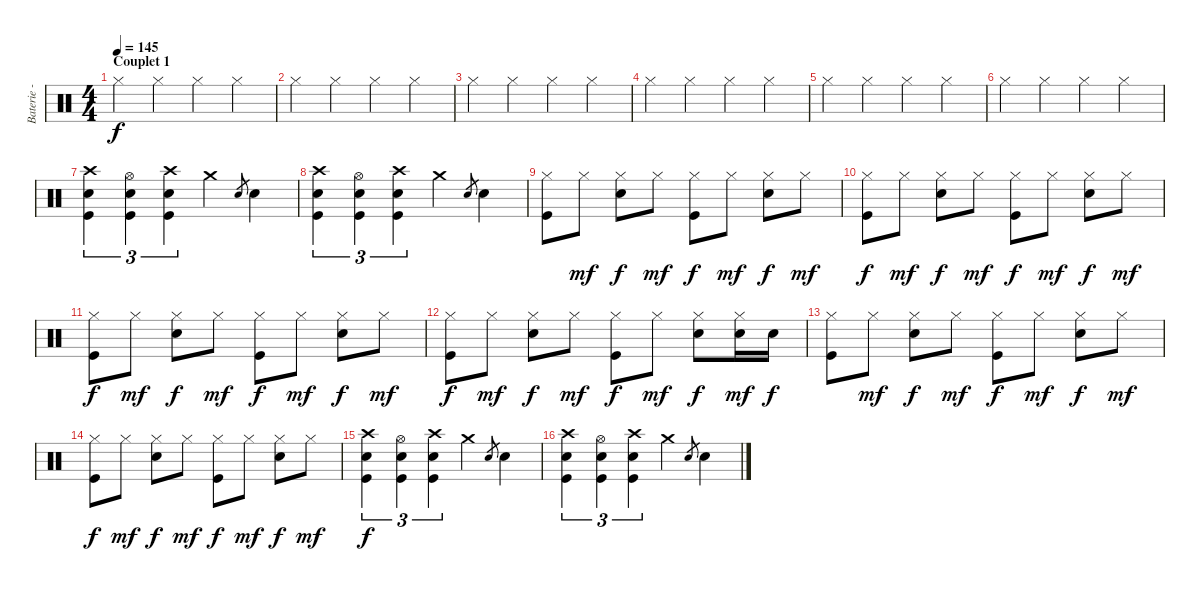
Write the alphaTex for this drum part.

\track ("Baterie - Alex" "Baterie - ") {instrument percussion}
\staff {score}
\articulation defaults
\ts (4 4)
\section ("" "Couplet 1")
\tempo 145
\clef neutral
\ks c "Hi-Hat (closed)".4{dy f} "Hi-Hat (closed)".4 "Hi-Hat (closed)".4 "Hi-Hat (closed)".4
|
"Hi-Hat (closed)".4 "Hi-Hat (closed)".4 "Hi-Hat (closed)".4 "Hi-Hat (closed)".4 |
"Hi-Hat (closed)".4 "Hi-Hat (closed)".4 "Hi-Hat (closed)".4 "Hi-Hat (closed)".4 |
"Hi-Hat (closed)".4 "Hi-Hat (closed)".4 "Hi-Hat (closed)".4 "Hi-Hat (closed)".4 |
"Hi-Hat (closed)".4 "Hi-Hat (closed)".4 "Hi-Hat (closed)".4 "Hi-Hat (closed)".4 |
"Hi-Hat (closed)".4 "Hi-Hat (closed)".4 "Hi-Hat (closed)".4 "Hi-Hat (closed)".4 |
("Crash high (hit)" "Electric Snare (hit)" "Kick (hit)").4{tu (3 2)} ("Hi-Hat (open)" "Electric Snare (hit)" "Kick (hit)").4{tu (3 2)} ("Crash high (hit)" "Electric Snare (hit)" "Kick (hit)").4{tu (3 2)} "Crash medium (hit)".4 "Electric Snare (hit)".8{gr} "Electric Snare (hit)".4 |
("Crash high (hit)" "Electric Snare (hit)" "Kick (hit)").4{tu (3 2)} ("Hi-Hat (open)" "Electric Snare (hit)" "Kick (hit)").4{tu (3 2)} ("Crash high (hit)" "Electric Snare (hit)" "Kick (hit)").4{tu (3 2)} "Crash medium (hit)".4 "Electric Snare (hit)".8{gr} "Electric Snare (hit)".4 |
("Hi-Hat (closed)" "Kick (hit)").8 "Hi-Hat (closed)".8{dy mf} ("Hi-Hat (closed)" "Electric Snare (hit)").8{dy f} "Hi-Hat (closed)".8{dy mf} ("Hi-Hat (closed)" "Kick (hit)").8{dy f} "Hi-Hat (closed)".8{dy mf} ("Hi-Hat (closed)" "Electric Snare (hit)").8{dy f} "Hi-Hat (closed)".8{dy mf} |
("Hi-Hat (closed)" "Kick (hit)").8{dy f} "Hi-Hat (closed)".8{dy mf} ("Hi-Hat (closed)" "Electric Snare (hit)").8{dy f} "Hi-Hat (closed)".8{dy mf} ("Hi-Hat (closed)" "Kick (hit)").8{dy f} "Hi-Hat (closed)".8{dy mf} ("Hi-Hat (closed)" "Electric Snare (hit)").8{dy f} "Hi-Hat (closed)".8{dy mf} |
("Hi-Hat (closed)" "Kick (hit)").8{dy f} "Hi-Hat (closed)".8{dy mf} ("Hi-Hat (closed)" "Electric Snare (hit)").8{dy f} "Hi-Hat (closed)".8{dy mf} ("Hi-Hat (closed)" "Kick (hit)").8{dy f} "Hi-Hat (closed)".8{dy mf} ("Hi-Hat (closed)" "Electric Snare (hit)").8{dy f} "Hi-Hat (closed)".8{dy mf} |
("Hi-Hat (closed)" "Kick (hit)").8{dy f} "Hi-Hat (closed)".8{dy mf} ("Hi-Hat (closed)" "Electric Snare (hit)").8{dy f} "Hi-Hat (closed)".8{dy mf} ("Hi-Hat (closed)" "Kick (hit)").8{dy f} "Hi-Hat (closed)".8{dy mf} ("Hi-Hat (closed)" "Electric Snare (hit)").8{dy f} ("Hi-Hat (closed)" "Electric Snare (hit)").16{dy mf} "Electric Snare (hit)".16{dy f} |
("Hi-Hat (closed)" "Kick (hit)").8 "Hi-Hat (closed)".8{dy mf} ("Hi-Hat (closed)" "Electric Snare (hit)").8{dy f} "Hi-Hat (closed)".8{dy mf} ("Hi-Hat (closed)" "Kick (hit)").8{dy f} "Hi-Hat (closed)".8{dy mf} ("Hi-Hat (closed)" "Electric Snare (hit)").8{dy f} "Hi-Hat (closed)".8{dy mf} |
("Hi-Hat (closed)" "Kick (hit)").8{dy f} "Hi-Hat (closed)".8{dy mf} ("Hi-Hat (closed)" "Electric Snare (hit)").8{dy f} "Hi-Hat (closed)".8{dy mf} ("Hi-Hat (closed)" "Kick (hit)").8{dy f} "Hi-Hat (closed)".8{dy mf} ("Hi-Hat (closed)" "Electric Snare (hit)").8{dy f} "Hi-Hat (closed)".8{dy mf} |
("Crash high (hit)" "Electric Snare (hit)" "Kick (hit)").4{tu (3 2) dy f} ("Hi-Hat (open)" "Electric Snare (hit)" "Kick (hit)").4{tu (3 2)} ("Crash high (hit)" "Electric Snare (hit)" "Kick (hit)").4{tu (3 2)} "Crash medium (hit)".4 "Electric Snare (hit)".8{gr} "Electric Snare (hit)".4 |
("Crash high (hit)" "Electric Snare (hit)" "Kick (hit)").4{tu (3 2)} ("Hi-Hat (open)" "Electric Snare (hit)" "Kick (hit)").4{tu (3 2)} ("Crash high (hit)" "Electric Snare (hit)" "Kick (hit)").4{tu (3 2)} "Crash medium (hit)".4 "Electric Snare (hit)".8{gr} "Electric Snare (hit)".4
